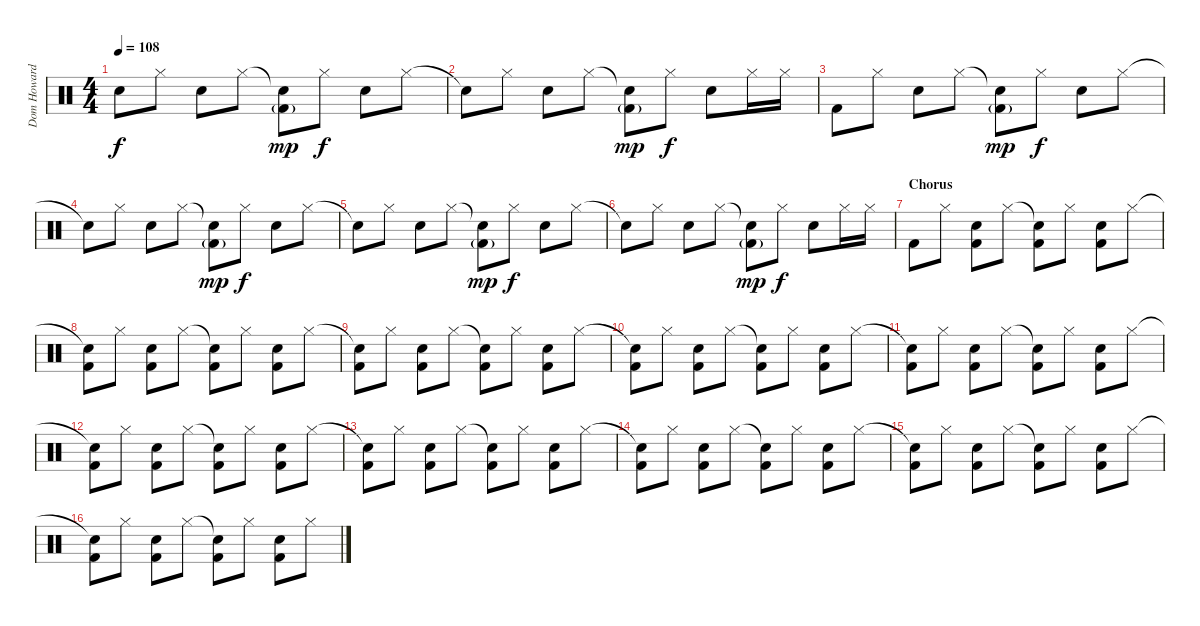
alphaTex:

\track ("Dom Howard" "Dom Howard") {instrument percussion}
\staff {score}
\articulation defaults
\ts (4 4)
\tempo 108
\clef neutral
\ks c "Snare (hit)"{t}.8{dy f} "Hi-Hat (closed)".8 "Electric Snare (hit)".8 "Hi-Hat (closed)".8
("Snare (hit)"{t} "Kick (hit) 2"{g}).8{dy mp} "Hi-Hat (closed)".8{dy f} "Electric Snare (hit)".8 "Hi-Hat (closed)".8 |
"Snare (hit)"{t}.8 "Hi-Hat (closed)".8 "Electric Snare (hit)".8 "Hi-Hat (closed)".8 ("Snare (hit)"{t} "Kick (hit) 2"{g}).8{dy mp} "Hi-Hat (closed)".8{dy f} "Electric Snare (hit)".8 "Hi-Hat (closed)".16 "Hi-Hat (closed)".16 |
"Kick (hit) 2".8 "Hi-Hat (closed)".8 "Electric Snare (hit)".8 "Hi-Hat (closed)".8 ("Snare (hit)"{t} "Kick (hit) 2"{g}).8{dy mp} "Hi-Hat (closed)".8{dy f} "Electric Snare (hit)".8 "Hi-Hat (closed)".8 |
"Snare (hit)"{t}.8 "Hi-Hat (closed)".8 "Electric Snare (hit)".8 "Hi-Hat (closed)".8 ("Snare (hit)"{t} "Kick (hit) 2"{g}).8{dy mp} "Hi-Hat (closed)".8{dy f} "Electric Snare (hit)".8 "Hi-Hat (closed)".8 |
"Snare (hit)"{t}.8 "Hi-Hat (closed)".8 "Electric Snare (hit)".8 "Hi-Hat (closed)".8 ("Snare (hit)"{t} "Kick (hit) 2"{g}).8{dy mp} "Hi-Hat (closed)".8{dy f} "Electric Snare (hit)".8 "Hi-Hat (closed)".8 |
"Snare (hit)"{t}.8 "Hi-Hat (closed)".8 "Electric Snare (hit)".8 "Hi-Hat (closed)".8 ("Snare (hit)"{t} "Kick (hit) 2"{g}).8{dy mp} "Hi-Hat (closed)".8{dy f} "Electric Snare (hit)".8 "Hi-Hat (closed)".16 "Hi-Hat (closed)".16 |
\section ("" "Chorus")
"Kick (hit) 2".8 "Hi-Hat (closed)".8 ("Electric Snare (hit)" "Kick (hit) 2").8 "Hi-Hat (closed)".8 ("Snare (hit)"{t} "Kick (hit) 2").8 "Hi-Hat (closed)".8 ("Electric Snare (hit)" "Kick (hit) 2").8 "Hi-Hat (closed)".8 |
("Snare (hit)"{t} "Kick (hit) 2").8 "Hi-Hat (closed)".8 ("Electric Snare (hit)" "Kick (hit) 2").8 "Hi-Hat (closed)".8 ("Snare (hit)"{t} "Kick (hit) 2").8 "Hi-Hat (closed)".8 ("Electric Snare (hit)" "Kick (hit) 2").8 "Hi-Hat (closed)".8 |
("Snare (hit)"{t} "Kick (hit) 2").8 "Hi-Hat (closed)".8 ("Electric Snare (hit)" "Kick (hit) 2").8 "Hi-Hat (closed)".8 ("Snare (hit)"{t} "Kick (hit) 2").8 "Hi-Hat (closed)".8 ("Electric Snare (hit)" "Kick (hit) 2").8 "Hi-Hat (closed)".8 |
("Snare (hit)"{t} "Kick (hit) 2").8 "Hi-Hat (closed)".8 ("Electric Snare (hit)" "Kick (hit) 2").8 "Hi-Hat (closed)".8 ("Snare (hit)"{t} "Kick (hit) 2").8 "Hi-Hat (closed)".8 ("Electric Snare (hit)" "Kick (hit) 2").8 "Hi-Hat (closed)".8 |
("Snare (hit)"{t} "Kick (hit) 2").8 "Hi-Hat (closed)".8 ("Electric Snare (hit)" "Kick (hit) 2").8 "Hi-Hat (closed)".8 ("Snare (hit)"{t} "Kick (hit) 2").8 "Hi-Hat (closed)".8 ("Electric Snare (hit)" "Kick (hit) 2").8 "Hi-Hat (closed)".8 |
("Snare (hit)"{t} "Kick (hit) 2").8 "Hi-Hat (closed)".8 ("Electric Snare (hit)" "Kick (hit) 2").8 "Hi-Hat (closed)".8 ("Snare (hit)"{t} "Kick (hit) 2").8 "Hi-Hat (closed)".8 ("Electric Snare (hit)" "Kick (hit) 2").8 "Hi-Hat (closed)".8 |
("Snare (hit)"{t} "Kick (hit) 2").8 "Hi-Hat (closed)".8 ("Electric Snare (hit)" "Kick (hit) 2").8 "Hi-Hat (closed)".8 ("Snare (hit)"{t} "Kick (hit) 2").8 "Hi-Hat (closed)".8 ("Electric Snare (hit)" "Kick (hit) 2").8 "Hi-Hat (closed)".8 |
("Snare (hit)"{t} "Kick (hit) 2").8 "Hi-Hat (closed)".8 ("Electric Snare (hit)" "Kick (hit) 2").8 "Hi-Hat (closed)".8 ("Snare (hit)"{t} "Kick (hit) 2").8 "Hi-Hat (closed)".8 ("Electric Snare (hit)" "Kick (hit) 2").8 "Hi-Hat (closed)".8 |
("Snare (hit)"{t} "Kick (hit) 2").8 "Hi-Hat (closed)".8 ("Electric Snare (hit)" "Kick (hit) 2").8 "Hi-Hat (closed)".8 ("Snare (hit)"{t} "Kick (hit) 2").8 "Hi-Hat (closed)".8 ("Electric Snare (hit)" "Kick (hit) 2").8 "Hi-Hat (closed)".8 |
("Snare (hit)"{t} "Kick (hit) 2").8 "Hi-Hat (closed)".8 ("Electric Snare (hit)" "Kick (hit) 2").8 "Hi-Hat (closed)".8 ("Snare (hit)"{t} "Kick (hit) 2").8 "Hi-Hat (closed)".8 ("Electric Snare (hit)" "Kick (hit) 2").8 "Hi-Hat (closed)".8
